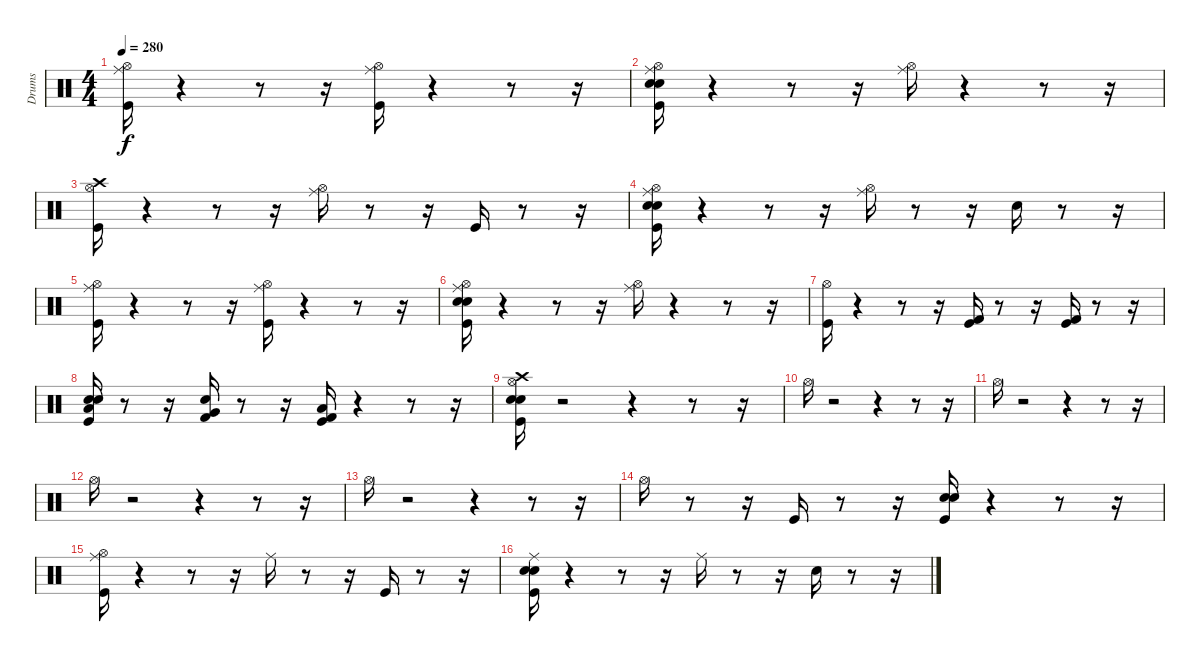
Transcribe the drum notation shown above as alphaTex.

\track ("Drums" "Drums") {instrument percussion}
\staff {score}
\articulation defaults
\ts (4 4)
\tempo 280
\clef neutral
\ks c
("Ride (middle)" "Hi-Hat (open)" "Kick (hit)").16{dy f} r.4 r.8 r.16 ("Hi-Hat (open)" "Ride (middle)" "Kick (hit)").16 r.4 r.8 r.16 |
("Ride (middle)" "Hi-Hat (open)" "Kick (hit)" "Snare (hit) 2" "Electric Snare (hit)").16 r.4 r.8 r.16 ("Hi-Hat (open)" "Ride (middle)").16 r.4 r.8 r.16 |
("Crash high (hit)" "Hi-Hat (open)" "Kick (hit)").16 r.4 r.8 r.16 ("Hi-Hat (open)" "Ride (middle)").16 r.8 r.16 "Kick (hit)".16 r.8 r.16 |
("Hi-Hat (open)" "Kick (hit)" "Snare (hit) 2" "Electric Snare (hit)" "Ride (middle)").16 r.4 r.8 r.16 ("Hi-Hat (open)" "Ride (middle)").16 r.8 r.16 "Snare (hit) 2".16 r.8 r.16 |
("Ride (middle)" "Hi-Hat (open)" "Kick (hit)").16 r.4 r.8 r.16 ("Hi-Hat (open)" "Ride (middle)" "Kick (hit)").16 r.4 r.8 r.16 |
("Ride (middle)" "Hi-Hat (open)" "Kick (hit)" "Snare (hit) 2" "Electric Snare (hit)").16 r.4 r.8 r.16 ("Hi-Hat (open)" "Ride (middle)").16 r.4 r.8 r.16 |
("Kick (hit)" "Hi-Hat (open)").16 r.4 r.8 r.16 ("Kick (hit) 2" "Kick (hit)").16 r.8 r.16 ("Kick (hit) 2" "Kick (hit)").16 r.8 r.16 |
("Electric Snare (hit)" "Snare (hit) 2" "Kick (hit)" "Low Tom (hit)").16 r.8 r.16 ("Very Low Tom (hit)" "Kick (hit) 2" "Snare (hit) 2").16 r.8 r.16 ("Low Floor Tom (hit)" "Kick (hit)" "Kick (hit) 2").16 r.4 r.8 r.16 |
("Kick (hit)" "Snare (hit) 2" "Electric Snare (hit)" "Hi-Hat (open)" "Crash high (hit)").16 r.2 r.4 r.8 r.16 |
"Hi-Hat (open)".16 r.2 r.4 r.8 r.16 |
"Hi-Hat (open)".16 r.2 r.4 r.8 r.16 |
"Hi-Hat (open)".16 r.2 r.4 r.8 r.16 |
"Hi-Hat (open)".16 r.2 r.4 r.8 r.16 |
"Hi-Hat (open)".16 r.8 r.16 "Kick (hit)".16 r.8 r.16 ("Electric Snare (hit)" "Snare (hit) 2" "Kick (hit)").16 r.4 r.8 r.16 |
("Kick (hit)" "Hi-Hat (open)" "Ride (middle)").16 r.4 r.8 r.16 "Ride (middle)".16 r.8 r.16 "Kick (hit)".16 r.8 r.16 |
("Kick (hit)" "Snare (hit) 2" "Electric Snare (hit)" "Ride (middle)").16 r.4 r.8 r.16 "Ride (middle)".16 r.8 r.16 "Snare (hit) 2".16 r.8 r.16
